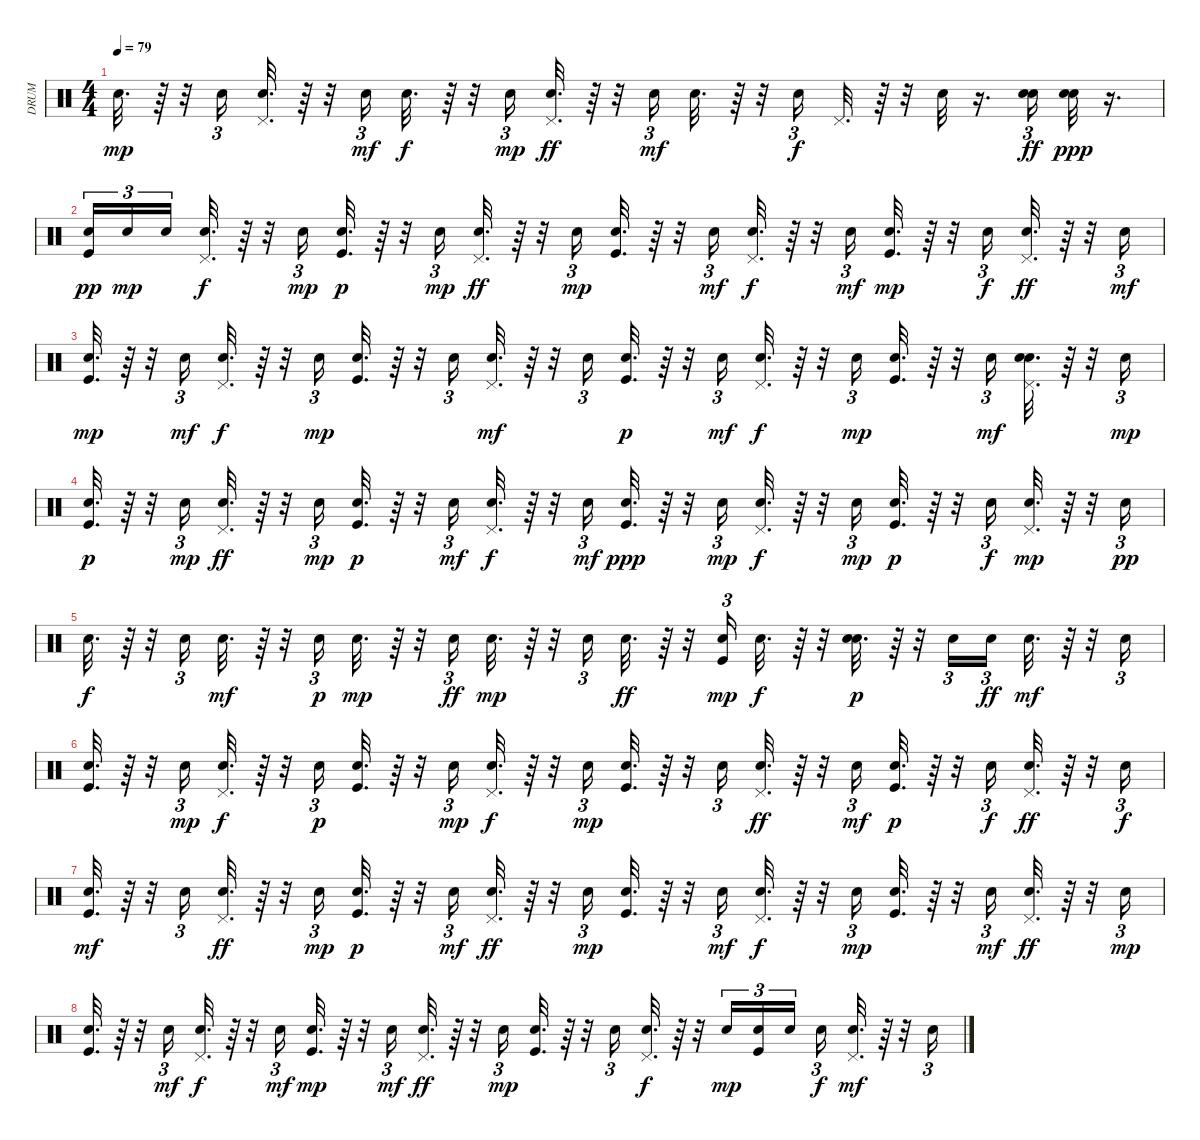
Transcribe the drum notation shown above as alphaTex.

\track ("DRUM" "DRUM") {instrument percussion}
\staff {score}
\articulation defaults
\ts (4 4)
\tempo 79
\clef neutral
\ks c "Snare (hit) 2".32{d dy mp}
r.64 r.32 "Snare (hit) 2".16{tu (3 2)} ("Snare (hit) 2" "Pedal Hi-Hat (hit)").32{d} r.64 r.32 "Snare (hit) 2".16{tu (3 2) dy mf} "Hand Clap (hit)".32{d dy f} r.64 r.32 "Snare (hit) 2".16{tu (3 2) dy mp} ("Snare (hit) 2" "Pedal Hi-Hat (hit)").32{d dy ff} r.64 r.32 "Snare (hit) 2".16{tu (3 2) dy mf} "Hand Clap (hit)".32{d} r.64 r.32 "Hand Clap (hit)".16{tu (3 2) dy f} "Pedal Hi-Hat (hit)".32{d} r.64 r.32 "Hand Clap (hit)".32 r.16{d} ("Hand Clap (hit)" "Snare (hit) 2").16{tu (3 2) dy ff} ("Hand Clap (hit)" "Snare (hit) 2").32{dy ppp} r.16{d} |
("Kick (hit)" "Snare (hit) 2").16{tu (3 2) dy pp} "Snare (hit) 2".16{tu (3 2) dy mp} "Snare (hit) 2".16{tu (3 2)} ("Pedal Hi-Hat (hit)" "Hand Clap (hit)").32{d dy f} r.64 r.32 "Snare (hit) 2".16{tu (3 2) dy mp} ("Kick (hit)" "Snare (hit) 2").32{d dy p} r.64 r.32 "Snare (hit) 2".16{tu (3 2) dy mp} ("Hand Clap (hit)" "Pedal Hi-Hat (hit)").32{d dy ff} r.64 r.32 "Snare (hit) 2".16{tu (3 2) dy mp} ("Kick (hit)" "Snare (hit) 2").32{d} r.64 r.32 "Snare (hit) 2".16{tu (3 2) dy mf} ("Hand Clap (hit)" "Pedal Hi-Hat (hit)").32{d dy f} r.64 r.32 "Snare (hit) 2".16{tu (3 2) dy mf} ("Kick (hit)" "Snare (hit) 2").32{d dy mp} r.64 r.32 "Snare (hit) 2".16{tu (3 2) dy f} ("Pedal Hi-Hat (hit)" "Hand Clap (hit)").32{d dy ff} r.64 r.32 "Snare (hit) 2".16{tu (3 2) dy mf} |
("Kick (hit)" "Snare (hit) 2").32{d dy mp} r.64 r.32 "Snare (hit) 2".16{tu (3 2) dy mf} ("Pedal Hi-Hat (hit)" "Hand Clap (hit)").32{d dy f} r.64 r.32 "Snare (hit) 2".16{tu (3 2) dy mp} ("Kick (hit)" "Snare (hit) 2").32{d} r.64 r.32 "Snare (hit) 2".16{tu (3 2)} ("Pedal Hi-Hat (hit)" "Hand Clap (hit)").32{d dy mf} r.64 r.32 "Snare (hit) 2".16{tu (3 2)} ("Snare (hit) 2" "Kick (hit)").32{d dy p} r.64 r.32 "Snare (hit) 2".16{tu (3 2) dy mf} ("Pedal Hi-Hat (hit)" "Hand Clap (hit)").32{d dy f} r.64 r.32 "Snare (hit) 2".16{tu (3 2) dy mp} ("Kick (hit)" "Snare (hit) 2").32{d} r.64 r.32 "Hand Clap (hit)".16{tu (3 2) dy mf} ("Hand Clap (hit)" "Pedal Hi-Hat (hit)" "Snare (hit) 2").32{d} r.64 r.32 "Snare (hit) 2".16{tu (3 2) dy mp} |
("Hand Clap (hit)" "Kick (hit)").32{d dy p} r.64 r.32 "Snare (hit) 2".16{tu (3 2) dy mp} ("Pedal Hi-Hat (hit)" "Hand Clap (hit)").32{d dy ff} r.64 r.32 "Snare (hit) 2".16{tu (3 2) dy mp} ("Snare (hit) 2" "Kick (hit)").32{d dy p} r.64 r.32 "Snare (hit) 2".16{tu (3 2) dy mf} ("Pedal Hi-Hat (hit)" "Hand Clap (hit)").32{d dy f} r.64 r.32 "Snare (hit) 2".16{tu (3 2) dy mf} ("Kick (hit)" "Snare (hit) 2").32{d dy ppp} r.64 r.32 "Snare (hit) 2".16{tu (3 2) dy mp} ("Pedal Hi-Hat (hit)" "Hand Clap (hit)").32{d dy f} r.64 r.32 "Snare (hit) 2".16{tu (3 2) dy mp} ("Snare (hit) 2" "Kick (hit)").32{d dy p} r.64 r.32 "Hand Clap (hit)".16{tu (3 2) dy f} ("Snare (hit) 2" "Pedal Hi-Hat (hit)").32{d dy mp} r.64 r.32 "Snare (hit) 2".16{tu (3 2) dy pp} |
"Hand Clap (hit)".32{d dy f} r.64 r.32 "Hand Clap (hit)".16{tu (3 2)} "Snare (hit) 2".32{d dy mf} r.64 r.32 "Snare (hit) 2".16{tu (3 2) dy p} "Snare (hit) 2".32{d dy mp} r.64 r.32 "Hand Clap (hit)".16{tu (3 2) dy ff} "Snare (hit) 2".32{d dy mp} r.64 r.32 "Snare (hit) 2".16{tu (3 2)} "Hand Clap (hit)".32{d dy ff} r.64 r.32 ("Snare (hit) 2" "Kick (hit)").16{tu (3 2) dy mp} "Hand Clap (hit)".32{d dy f} r.64 r.32 ("Hand Clap (hit)" "Snare (hit) 2").32{d dy p} r.64 r.32 "Snare (hit) 2".16{tu (3 2)} "Hand Clap (hit)".16{tu (3 2) dy ff} "Hand Clap (hit)".32{d dy mf} r.64 r.32 "Snare (hit) 2".16{tu (3 2)} |
("Kick (hit)" "Hand Clap (hit)").32{d} r.64 r.32 "Snare (hit) 2".16{tu (3 2) dy mp} ("Pedal Hi-Hat (hit)" "Hand Clap (hit)").32{d dy f} r.64 r.32 "Snare (hit) 2".16{tu (3 2) dy p} ("Kick (hit)" "Snare (hit) 2").32{d} r.64 r.32 "Snare (hit) 2".16{tu (3 2) dy mp} ("Pedal Hi-Hat (hit)" "Hand Clap (hit)").32{d dy f} r.64 r.32 "Snare (hit) 2".16{tu (3 2) dy mp} ("Snare (hit) 2" "Kick (hit)").32{d} r.64 r.32 "Snare (hit) 2".16{tu (3 2)} ("Pedal Hi-Hat (hit)" "Hand Clap (hit)").32{d dy ff} r.64 r.32 "Snare (hit) 2".16{tu (3 2) dy mf} ("Kick (hit)" "Snare (hit) 2").32{d dy p} r.64 r.32 "Snare (hit) 2".16{tu (3 2) dy f} ("Pedal Hi-Hat (hit)" "Hand Clap (hit)").32{d dy ff} r.64 r.32 "Snare (hit) 2".16{tu (3 2) dy f} |
("Kick (hit)" "Snare (hit) 2").32{d dy mf} r.64 r.32 "Snare (hit) 2".16{tu (3 2)} ("Pedal Hi-Hat (hit)" "Hand Clap (hit)").32{d dy ff} r.64 r.32 "Snare (hit) 2".16{tu (3 2) dy mp} ("Kick (hit)" "Snare (hit) 2").32{d dy p} r.64 r.32 "Snare (hit) 2".16{tu (3 2) dy mf} ("Pedal Hi-Hat (hit)" "Hand Clap (hit)").32{d dy ff} r.64 r.32 "Snare (hit) 2".16{tu (3 2) dy mp} ("Snare (hit) 2" "Kick (hit)").32{d} r.64 r.32 "Snare (hit) 2".16{tu (3 2) dy mf} ("Pedal Hi-Hat (hit)" "Hand Clap (hit)").32{d dy f} r.64 r.32 "Snare (hit) 2".16{tu (3 2) dy mp} ("Snare (hit) 2" "Kick (hit)").32{d} r.64 r.32 "Snare (hit) 2".16{tu (3 2) dy mf} ("Hand Clap (hit)" "Pedal Hi-Hat (hit)").32{d dy ff} r.64 r.32 "Snare (hit) 2".16{tu (3 2) dy mp} |
("Snare (hit) 2" "Kick (hit)").32{d} r.64 r.32 "Snare (hit) 2".16{tu (3 2) dy mf} ("Hand Clap (hit)" "Pedal Hi-Hat (hit)").32{d dy f} r.64 r.32 "Snare (hit) 2".16{tu (3 2) dy mf} ("Snare (hit) 2" "Kick (hit)").32{d dy mp} r.64 r.32 "Snare (hit) 2".16{tu (3 2) dy mf} ("Hand Clap (hit)" "Pedal Hi-Hat (hit)").32{d dy ff} r.64 r.32 "Snare (hit) 2".16{tu (3 2) dy mp} ("Snare (hit) 2" "Kick (hit)").32{d} r.64 r.32 "Snare (hit) 2".16{tu (3 2)} ("Hand Clap (hit)" "Pedal Hi-Hat (hit)").32{d dy f} r.64 r.32 "Snare (hit) 2".16{tu (3 2) dy mp} ("Kick (hit)" "Snare (hit) 2").16{tu (3 2)} "Snare (hit) 2".16{tu (3 2)} "Hand Clap (hit)".16{tu (3 2) dy f} ("Snare (hit) 2" "Pedal Hi-Hat (hit)").32{d dy mf} r.64 r.32 "Snare (hit) 2".16{tu (3 2)}
